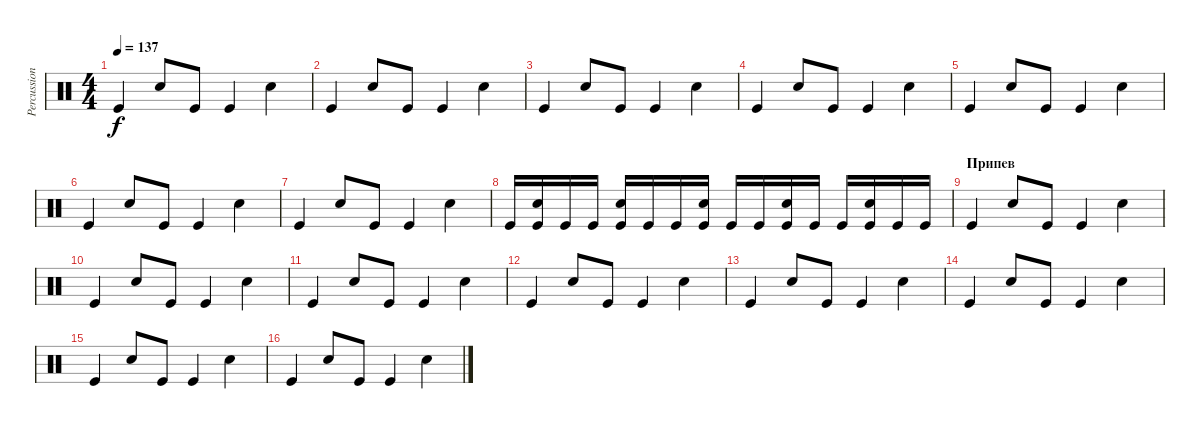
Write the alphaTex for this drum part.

\track ("Percussion" "Percussion") {instrument percussion}
\staff {score}
\articulation defaults
\ts (4 4)
\tempo 137
\clef neutral
\ks c "Kick (hit)".4{dy f} "Snare (hit) 2".8 "Kick (hit)".8 "Kick (hit)".4 "Snare (hit) 2".4
|
"Kick (hit)".4 "Snare (hit) 2".8 "Kick (hit)".8 "Kick (hit)".4 "Snare (hit) 2".4 |
"Kick (hit)".4 "Snare (hit) 2".8 "Kick (hit)".8 "Kick (hit)".4 "Snare (hit) 2".4 |
"Kick (hit)".4 "Snare (hit) 2".8 "Kick (hit)".8 "Kick (hit)".4 "Snare (hit) 2".4 |
"Kick (hit)".4 "Snare (hit) 2".8 "Kick (hit)".8 "Kick (hit)".4 "Snare (hit) 2".4 |
"Kick (hit)".4 "Snare (hit) 2".8 "Kick (hit)".8 "Kick (hit)".4 "Snare (hit) 2".4 |
"Kick (hit)".4 "Snare (hit) 2".8 "Kick (hit)".8 "Kick (hit)".4 "Snare (hit) 2".4 |
"Kick (hit)".16 ("Snare (hit) 2" "Kick (hit)").16 "Kick (hit)".16 "Kick (hit)".16 ("Snare (hit) 2" "Kick (hit)").16 "Kick (hit)".16 "Kick (hit)".16 ("Snare (hit) 2" "Kick (hit)").16 "Kick (hit)".16 "Kick (hit)".16 ("Snare (hit) 2" "Kick (hit)").16 "Kick (hit)".16 "Kick (hit)".16 ("Snare (hit) 2" "Kick (hit)").16 "Kick (hit)".16 "Kick (hit)".16 |
\section ("" "Припев")
"Kick (hit)".4 "Snare (hit) 2".8 "Kick (hit)".8 "Kick (hit)".4 "Snare (hit) 2".4 |
"Kick (hit)".4 "Snare (hit) 2".8 "Kick (hit)".8 "Kick (hit)".4 "Snare (hit) 2".4 |
"Kick (hit)".4 "Snare (hit) 2".8 "Kick (hit)".8 "Kick (hit)".4 "Snare (hit) 2".4 |
"Kick (hit)".4 "Snare (hit) 2".8 "Kick (hit)".8 "Kick (hit)".4 "Snare (hit) 2".4 |
"Kick (hit)".4 "Snare (hit) 2".8 "Kick (hit)".8 "Kick (hit)".4 "Snare (hit) 2".4 |
"Kick (hit)".4 "Snare (hit) 2".8 "Kick (hit)".8 "Kick (hit)".4 "Snare (hit) 2".4 |
"Kick (hit)".4 "Snare (hit) 2".8 "Kick (hit)".8 "Kick (hit)".4 "Snare (hit) 2".4 |
"Kick (hit)".4 "Snare (hit) 2".8 "Kick (hit)".8 "Kick (hit)".4 "Snare (hit) 2".4
